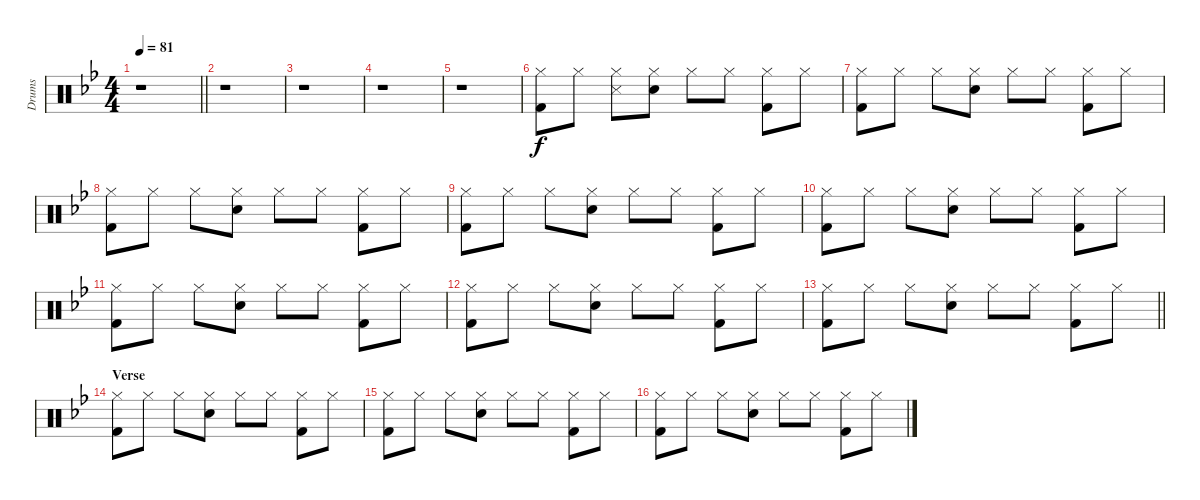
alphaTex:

\track ("Drums" "Drums") {instrument percussion}
\staff {score}
\articulation defaults
\ts (4 4)
\tempo 81
\clef neutral
\barLineRight lightlight
\ks gminor
r.1{dy f} |
\section ("" "")
r.1 |
r.1 |
r.1 |
r.1 |
("Hi-Hat (closed)" "Kick (hit) 2").8 "Hi-Hat (closed)".8 ("Hi-Hat (closed)" "Snare (side stick) 3").8 ("Hi-Hat (closed)" "Electric Snare (hit)").8 "Hi-Hat (closed)".8 "Hi-Hat (closed)".8 ("Hi-Hat (closed)" "Kick (hit) 2").8 "Hi-Hat (closed)".8 |
("Hi-Hat (closed)" "Kick (hit) 2").8 "Hi-Hat (closed)".8 "Hi-Hat (closed)".8 ("Hi-Hat (closed)" "Electric Snare (hit)").8 "Hi-Hat (closed)".8 "Hi-Hat (closed)".8 ("Hi-Hat (closed)" "Kick (hit) 2").8 "Hi-Hat (closed)".8 |
("Hi-Hat (closed)" "Kick (hit) 2").8 "Hi-Hat (closed)".8 "Hi-Hat (closed)".8 ("Hi-Hat (closed)" "Electric Snare (hit)").8 "Hi-Hat (closed)".8 "Hi-Hat (closed)".8 ("Hi-Hat (closed)" "Kick (hit) 2").8 "Hi-Hat (closed)".8 |
("Hi-Hat (closed)" "Kick (hit) 2").8 "Hi-Hat (closed)".8 "Hi-Hat (closed)".8 ("Hi-Hat (closed)" "Electric Snare (hit)").8 "Hi-Hat (closed)".8 "Hi-Hat (closed)".8 ("Hi-Hat (closed)" "Kick (hit) 2").8 "Hi-Hat (closed)".8 |
("Hi-Hat (closed)" "Kick (hit) 2").8 "Hi-Hat (closed)".8 "Hi-Hat (closed)".8 ("Hi-Hat (closed)" "Electric Snare (hit)").8 "Hi-Hat (closed)".8 "Hi-Hat (closed)".8 ("Hi-Hat (closed)" "Kick (hit) 2").8 "Hi-Hat (closed)".8 |
("Hi-Hat (closed)" "Kick (hit) 2").8 "Hi-Hat (closed)".8 "Hi-Hat (closed)".8 ("Hi-Hat (closed)" "Electric Snare (hit)").8 "Hi-Hat (closed)".8 "Hi-Hat (closed)".8 ("Hi-Hat (closed)" "Kick (hit) 2").8 "Hi-Hat (closed)".8 |
("Hi-Hat (closed)" "Kick (hit) 2").8 "Hi-Hat (closed)".8 "Hi-Hat (closed)".8 ("Hi-Hat (closed)" "Electric Snare (hit)").8 "Hi-Hat (closed)".8 "Hi-Hat (closed)".8 ("Hi-Hat (closed)" "Kick (hit) 2").8 "Hi-Hat (closed)".8 |
\barLineRight lightlight
("Hi-Hat (closed)" "Kick (hit) 2").8 "Hi-Hat (closed)".8 "Hi-Hat (closed)".8 ("Hi-Hat (closed)" "Electric Snare (hit)").8 "Hi-Hat (closed)".8 "Hi-Hat (closed)".8 ("Hi-Hat (closed)" "Kick (hit) 2").8 "Hi-Hat (closed)".8 |
\section ("" "Verse")
("Hi-Hat (closed)" "Kick (hit) 2").8 "Hi-Hat (closed)".8 "Hi-Hat (closed)".8 ("Hi-Hat (closed)" "Electric Snare (hit)").8 "Hi-Hat (closed)".8 "Hi-Hat (closed)".8 ("Hi-Hat (closed)" "Kick (hit) 2").8 "Hi-Hat (closed)".8 |
("Hi-Hat (closed)" "Kick (hit) 2").8 "Hi-Hat (closed)".8 "Hi-Hat (closed)".8 ("Hi-Hat (closed)" "Electric Snare (hit)").8 "Hi-Hat (closed)".8 "Hi-Hat (closed)".8 ("Hi-Hat (closed)" "Kick (hit) 2").8 "Hi-Hat (closed)".8 |
("Hi-Hat (closed)" "Kick (hit) 2").8 "Hi-Hat (closed)".8 "Hi-Hat (closed)".8 ("Hi-Hat (closed)" "Electric Snare (hit)").8 "Hi-Hat (closed)".8 "Hi-Hat (closed)".8 ("Hi-Hat (closed)" "Kick (hit) 2").8 "Hi-Hat (closed)".8
